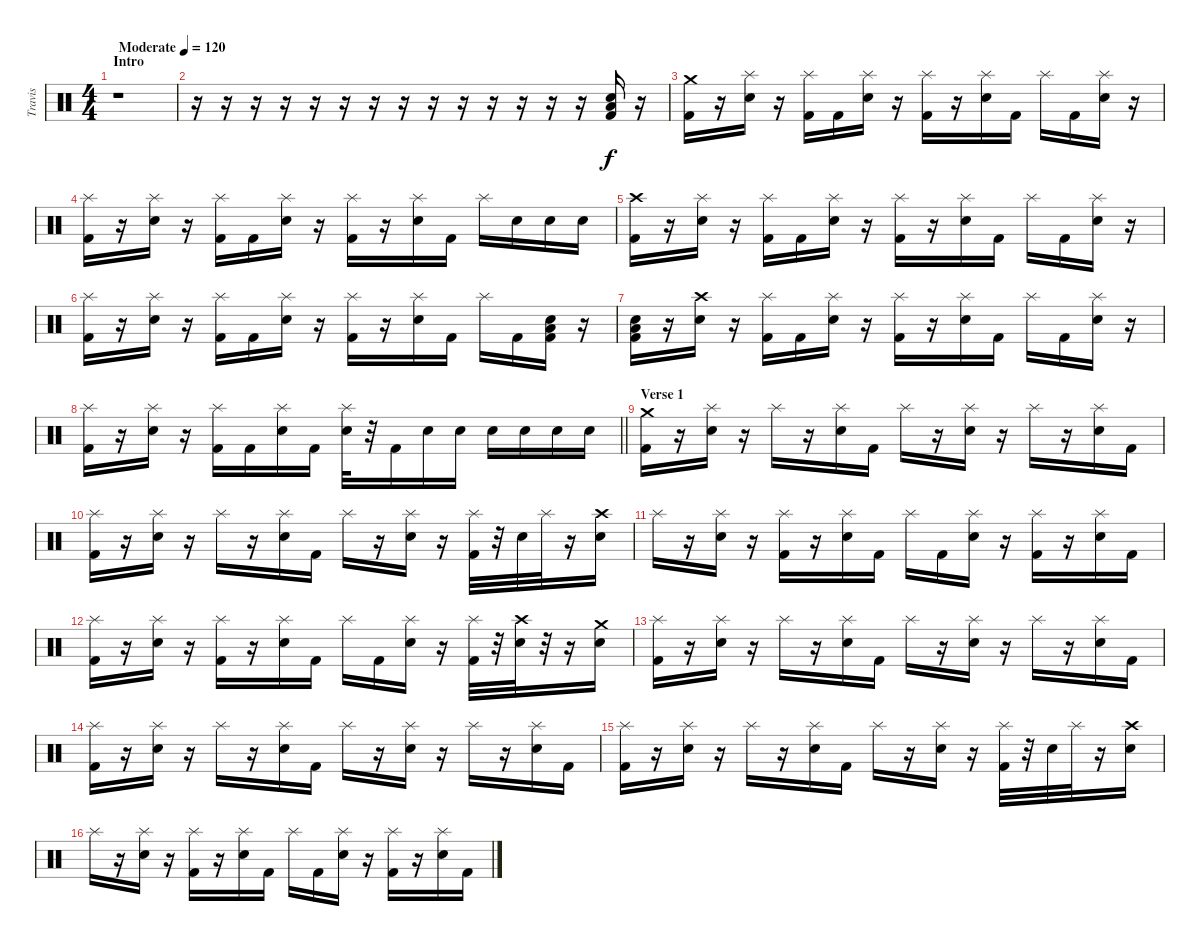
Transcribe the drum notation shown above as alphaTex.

\track ("Travis" "Travis") {instrument percussion}
\staff {score}
\articulation defaults
\ts (4 4)
\section ("" "Intro")
\tempo (120 "Moderate")
\clef neutral
\ks c
r.1{dy f} |
r.16 r.16 r.16 r.16 r.16 r.16 r.16 r.16 r.16 r.16 r.16 r.16 r.16 r.16 ("Low Floor Tom (hit)" "Electric Snare (hit)" "Kick (hit) 2").16 r.16 |
("Crash medium (hit)" "Kick (hit) 2").16 r.16 ("Splash (hit)" "Electric Snare (hit)").16 r.16 ("Splash (hit)" "Kick (hit) 2").16 "Kick (hit) 2".16 ("Splash (hit)" "Electric Snare (hit)").16 r.16 ("Splash (hit)" "Kick (hit) 2").16 r.16 ("Splash (hit)" "Electric Snare (hit)").16 "Kick (hit) 2".16 "Splash (hit)".16 "Kick (hit) 2".16 ("Splash (hit)" "Electric Snare (hit)").16 r.16 |
("Splash (hit)" "Kick (hit) 2").16 r.16 ("Splash (hit)" "Electric Snare (hit)").16 r.16 ("Splash (hit)" "Kick (hit) 2").16 "Kick (hit) 2".16 ("Splash (hit)" "Electric Snare (hit)").16 r.16 ("Splash (hit)" "Kick (hit) 2").16 r.16 ("Splash (hit)" "Electric Snare (hit)").16 "Kick (hit) 2".16 "Splash (hit)".16 "Electric Snare (hit)".16 "Electric Snare (hit)".16 "Electric Snare (hit)".16 |
("Crash high (hit)" "Kick (hit) 2").16 r.16 ("Splash (hit)" "Electric Snare (hit)").16 r.16 ("Splash (hit)" "Kick (hit) 2").16 "Kick (hit) 2".16 ("Splash (hit)" "Electric Snare (hit)").16 r.16 ("Splash (hit)" "Kick (hit) 2").16 r.16 ("Splash (hit)" "Electric Snare (hit)").16 "Kick (hit) 2".16 "Splash (hit)".16 "Kick (hit) 2".16 ("Splash (hit)" "Electric Snare (hit)").16 r.16 |
("Splash (hit)" "Kick (hit) 2").16 r.16 ("Splash (hit)" "Electric Snare (hit)").16 r.16 ("Splash (hit)" "Kick (hit) 2").16 "Kick (hit) 2".16 ("Splash (hit)" "Electric Snare (hit)").16 r.16 ("Splash (hit)" "Kick (hit) 2").16 r.16 ("Splash (hit)" "Electric Snare (hit)").16 "Kick (hit) 2".16 "Splash (hit)".16 "Kick (hit) 2".16 ("Low Floor Tom (hit)" "Electric Snare (hit)" "Kick (hit) 2").16 r.16 |
("Low Floor Tom (hit)" "Electric Snare (hit)" "Kick (hit) 2").16 r.16 ("Crash high (hit)" "Electric Snare (hit)").16 r.16 ("Splash (hit)" "Kick (hit) 2").16 "Kick (hit) 2".16 ("Splash (hit)" "Electric Snare (hit)").16 r.16 ("Splash (hit)" "Kick (hit) 2").16 r.16 ("Splash (hit)" "Electric Snare (hit)").16 "Kick (hit) 2".16 "Splash (hit)".16 "Kick (hit) 2".16 ("Splash (hit)" "Electric Snare (hit)").16 r.16 |
\barLineRight lightlight
("Splash (hit)" "Kick (hit) 2").16 r.16 ("Splash (hit)" "Electric Snare (hit)").16 r.16 ("Splash (hit)" "Kick (hit) 2").16 "Kick (hit) 2".16 ("Splash (hit)" "Electric Snare (hit)").16 "Kick (hit) 2".16 ("Splash (hit)" "Electric Snare (hit)").32 r.32 "Kick (hit) 2".16 "Electric Snare (hit)".16 "Electric Snare (hit)".16 "Electric Snare (hit)".16 "Electric Snare (hit)".16 "Electric Snare (hit)".16 "Electric Snare (hit)".16 |
\section ("" "Verse 1")
("Crash medium (hit)" "Kick (hit) 2").16 r.16 ("Splash (hit)" "Electric Snare (hit)").16 r.16 "Splash (hit)".16 r.16 ("Splash (hit)" "Electric Snare (hit)").16 "Kick (hit) 2".16 "Splash (hit)".16 r.16 ("Splash (hit)" "Electric Snare (hit)").16 r.16 "Splash (hit)".16 r.16 ("Splash (hit)" "Electric Snare (hit)").16 "Kick (hit) 2".16 |
("Splash (hit)" "Kick (hit) 2").16 r.16 ("Splash (hit)" "Electric Snare (hit)").16 r.16 "Splash (hit)".16 r.16 ("Splash (hit)" "Electric Snare (hit)").16 "Kick (hit) 2".16 "Splash (hit)".16 r.16 ("Splash (hit)" "Electric Snare (hit)").16 r.16 ("Splash (hit)" "Kick (hit) 2").32 r.32 "Electric Snare (hit)".32 "Splash (hit)".32 r.16 ("Crash high (hit)" "Electric Snare (hit)").16 |
"Splash (hit)".16 r.16 ("Splash (hit)" "Electric Snare (hit)").16 r.16 ("Splash (hit)" "Kick (hit) 2").16 r.16 ("Splash (hit)" "Electric Snare (hit)").16 "Kick (hit) 2".16 "Splash (hit)".16 "Kick (hit) 2".16 ("Splash (hit)" "Electric Snare (hit)").16 r.16 ("Splash (hit)" "Kick (hit) 2").16 r.16 ("Splash (hit)" "Electric Snare (hit)").16 "Kick (hit) 2".16 |
("Splash (hit)" "Kick (hit) 2").16 r.16 ("Splash (hit)" "Electric Snare (hit)").16 r.16 ("Splash (hit)" "Kick (hit) 2").16 r.16 ("Splash (hit)" "Electric Snare (hit)").16 "Kick (hit) 2".16 "Splash (hit)".16 "Kick (hit) 2".16 ("Splash (hit)" "Electric Snare (hit)").16 r.16 ("Splash (hit)" "Kick (hit) 2").32 r.32 ("Crash high (hit)" "Electric Snare (hit)").32 r.32 r.16 ("Crash medium (hit)" "Electric Snare (hit)").16 |
("Splash (hit)" "Kick (hit) 2").16 r.16 ("Splash (hit)" "Electric Snare (hit)").16 r.16 "Splash (hit)".16 r.16 ("Splash (hit)" "Electric Snare (hit)").16 "Kick (hit) 2".16 "Splash (hit)".16 r.16 ("Splash (hit)" "Electric Snare (hit)").16 r.16 "Splash (hit)".16 r.16 ("Splash (hit)" "Electric Snare (hit)").16 "Kick (hit) 2".16 |
("Splash (hit)" "Kick (hit) 2").16 r.16 ("Splash (hit)" "Electric Snare (hit)").16 r.16 "Splash (hit)".16 r.16 ("Splash (hit)" "Electric Snare (hit)").16 "Kick (hit) 2".16 "Splash (hit)".16 r.16 ("Splash (hit)" "Electric Snare (hit)").16 r.16 "Splash (hit)".16 r.16 ("Splash (hit)" "Electric Snare (hit)").16 "Kick (hit) 2".16 |
("Splash (hit)" "Kick (hit) 2").16 r.16 ("Splash (hit)" "Electric Snare (hit)").16 r.16 "Splash (hit)".16 r.16 ("Splash (hit)" "Electric Snare (hit)").16 "Kick (hit) 2".16 "Splash (hit)".16 r.16 ("Splash (hit)" "Electric Snare (hit)").16 r.16 ("Splash (hit)" "Kick (hit) 2").32 r.32 "Electric Snare (hit)".32 "Splash (hit)".32 r.16 ("Crash high (hit)" "Electric Snare (hit)").16 |
"Splash (hit)".16 r.16 ("Splash (hit)" "Electric Snare (hit)").16 r.16 ("Splash (hit)" "Kick (hit) 2").16 r.16 ("Splash (hit)" "Electric Snare (hit)").16 "Kick (hit) 2".16 "Splash (hit)".16 "Kick (hit) 2".16 ("Splash (hit)" "Electric Snare (hit)").16 r.16 ("Splash (hit)" "Kick (hit) 2").16 r.16 ("Splash (hit)" "Electric Snare (hit)").16 "Kick (hit) 2".16
